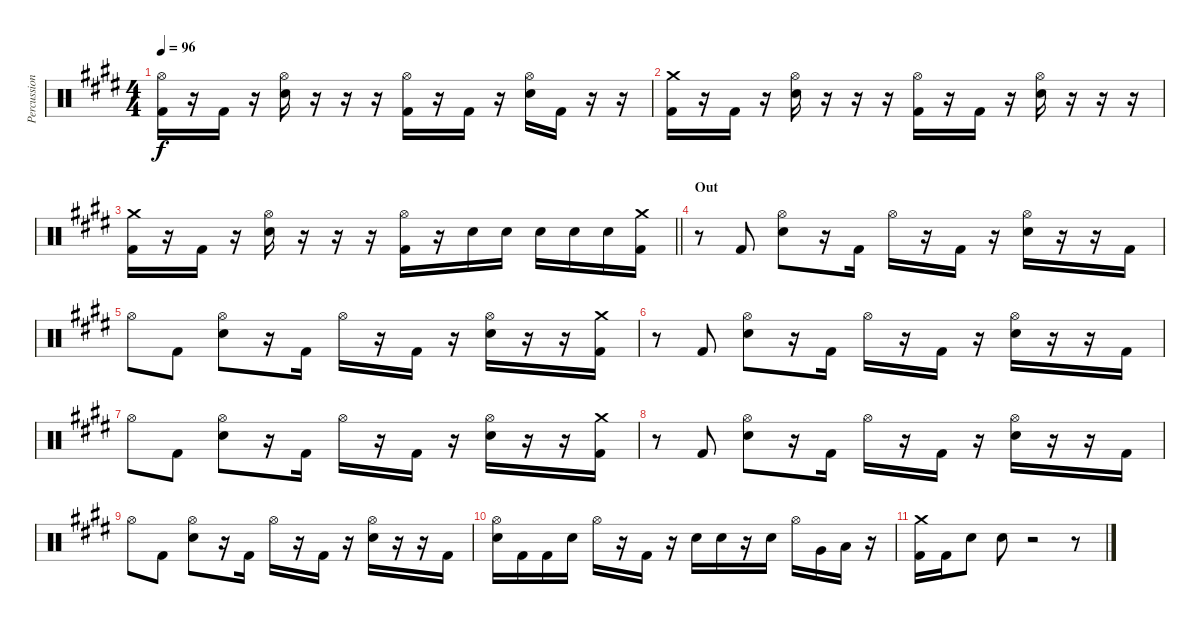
\track ("Percussioni" "Percussion") {instrument percussion}
\staff {score}
\articulation defaults
\ts (4 4)
\tempo 96
\clef neutral
\ks c#minor
("Kick (hit) 2" "Hi-Hat (open)").16{dy f} r.16 "Kick (hit) 2".16 r.16 ("Electric Snare (hit)" "Hi-Hat (open)").16 r.16 r.16 r.16 ("Kick (hit) 2" "Hi-Hat (open)").16 r.16 "Kick (hit) 2".16 r.16 ("Electric Snare (hit)" "Hi-Hat (open)").16 "Kick (hit) 2".16 r.16 r.16 |
("Kick (hit) 2" "Crash medium (hit)").16 r.16 "Kick (hit) 2".16 r.16 ("Electric Snare (hit)" "Hi-Hat (open)").16 r.16 r.16 r.16 ("Kick (hit) 2" "Hi-Hat (open)").16 r.16 "Kick (hit) 2".16 r.16 ("Electric Snare (hit)" "Hi-Hat (open)").16 r.16 r.16 r.16 |
\barLineRight lightlight
\ks e
("Kick (hit) 2" "Crash medium (hit)").16 r.16 "Kick (hit) 2".16 r.16 ("Electric Snare (hit)" "Hi-Hat (open)").16 r.16 r.16 r.16 ("Kick (hit) 2" "Hi-Hat (open)").16 r.16 "Electric Snare (hit)".16 "Electric Snare (hit)".16 "Electric Snare (hit)".16 "Electric Snare (hit)".16 "Electric Snare (hit)".16 ("Kick (hit) 2" "Crash medium (hit)").16 |
\section ("" "Out")
\ks c#minor
r.8 "Kick (hit) 2".8 ("Electric Snare (hit)" "Hi-Hat (open)").8 r.16 "Kick (hit) 2".16 "Hi-Hat (open)".16 r.16 "Kick (hit) 2".16 r.16 ("Electric Snare (hit)" "Hi-Hat (open)").16 r.16 r.16 "Kick (hit) 2".16 |
"Hi-Hat (open)".8 "Kick (hit) 2".8 ("Electric Snare (hit)" "Hi-Hat (open)").8 r.16 "Kick (hit) 2".16 "Hi-Hat (open)".16 r.16 "Kick (hit) 2".16 r.16 ("Electric Snare (hit)" "Hi-Hat (open)").16 r.16 r.16 ("Kick (hit) 2" "Crash medium (hit)").16 |
r.8 "Kick (hit) 2".8 ("Electric Snare (hit)" "Hi-Hat (open)").8 r.16 "Kick (hit) 2".16 "Hi-Hat (open)".16 r.16 "Kick (hit) 2".16 r.16 ("Electric Snare (hit)" "Hi-Hat (open)").16 r.16 r.16 "Kick (hit) 2".16 |
"Hi-Hat (open)".8 "Kick (hit) 2".8 ("Electric Snare (hit)" "Hi-Hat (open)").8 r.16 "Kick (hit) 2".16 "Hi-Hat (open)".16 r.16 "Kick (hit) 2".16 r.16 ("Electric Snare (hit)" "Hi-Hat (open)").16 r.16 r.16 ("Kick (hit) 2" "Crash medium (hit)").16 |
r.8 "Kick (hit) 2".8 ("Electric Snare (hit)" "Hi-Hat (open)").8 r.16 "Kick (hit) 2".16 "Hi-Hat (open)".16 r.16 "Kick (hit) 2".16 r.16 ("Electric Snare (hit)" "Hi-Hat (open)").16 r.16 r.16 "Kick (hit) 2".16 |
"Hi-Hat (open)".8 "Kick (hit) 2".8 ("Electric Snare (hit)" "Hi-Hat (open)").8 r.16 "Kick (hit) 2".16 "Hi-Hat (open)".16 r.16 "Kick (hit) 2".16 r.16 ("Electric Snare (hit)" "Hi-Hat (open)").16 r.16 r.16 "Kick (hit) 2".16 |
("Electric Snare (hit)" "Hi-Hat (open)").16 "Kick (hit) 2".16 "Kick (hit) 2".16 "Electric Snare (hit)".16 "Hi-Hat (open)".16 r.16 "Kick (hit) 2".16 r.16 "Electric Snare (hit)".16 "Electric Snare (hit)".16 r.16 "Electric Snare (hit)".16 "Hi-Hat (open)".16 "Very Low Tom (hit)".16 "Low Floor Tom (hit)".16 r.16 |
("Kick (hit) 2" "Crash medium (hit)").16 "Kick (hit) 2".16 "Electric Snare (hit)".8 "Electric Snare (hit)".8 r.2 r.8
